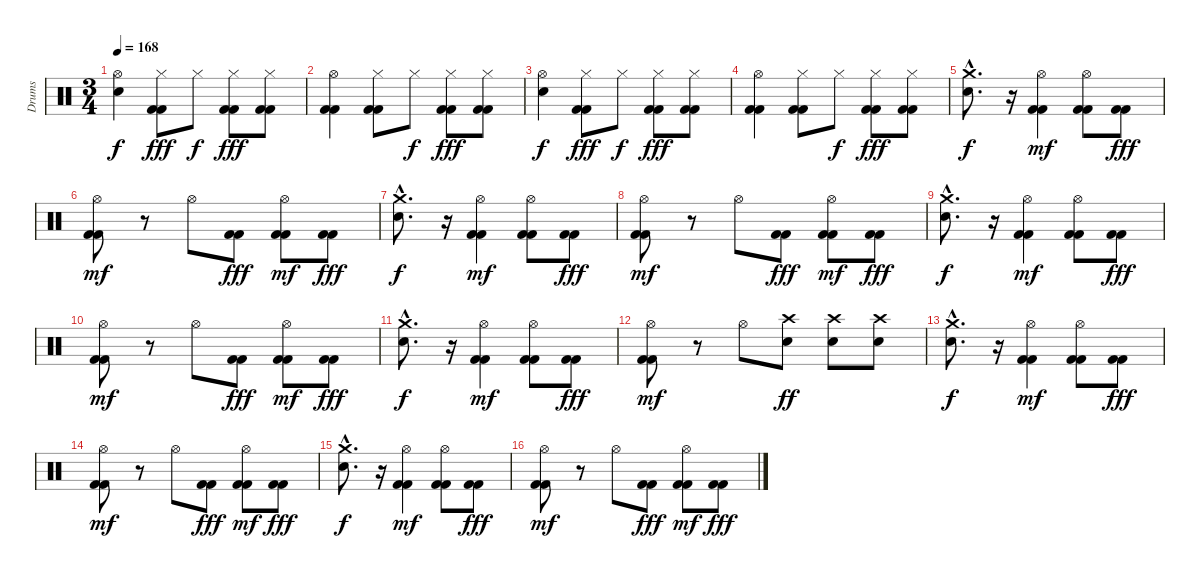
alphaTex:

\track ("Drums" "Drums") {instrument percussion}
\staff {score}
\articulation defaults
\ts (3 4)
\tempo 168
\clef neutral
\ks c
("Hi-Hat (open)" "Electric Snare (hit)").4{dy f} ("Hi-Hat (closed)" "Kick (hit) 2" "Kick (hit) 2").8{dy fff} "Hi-Hat (closed)".8{dy f} ("Hi-Hat (closed)" "Kick (hit) 2" "Kick (hit) 2").8{dy fff} ("Hi-Hat (closed)" "Kick (hit) 2" "Kick (hit) 2").8 |
("Hi-Hat (open)" "Kick (hit) 2" "Kick (hit) 2").4 ("Hi-Hat (closed)" "Kick (hit) 2" "Kick (hit) 2").8 "Hi-Hat (closed)".8{dy f} ("Hi-Hat (closed)" "Kick (hit) 2" "Kick (hit) 2").8{dy fff} ("Hi-Hat (closed)" "Kick (hit) 2" "Kick (hit) 2").8 |
("Hi-Hat (open)" "Electric Snare (hit)").4{dy f} ("Hi-Hat (closed)" "Kick (hit) 2" "Kick (hit) 2").8{dy fff} "Hi-Hat (closed)".8{dy f} ("Hi-Hat (closed)" "Kick (hit) 2" "Kick (hit) 2").8{dy fff} ("Hi-Hat (closed)" "Kick (hit) 2" "Kick (hit) 2").8 |
("Hi-Hat (open)" "Kick (hit) 2" "Kick (hit) 2").4 ("Hi-Hat (closed)" "Kick (hit) 2" "Kick (hit) 2").8 "Hi-Hat (closed)".8{dy f} ("Hi-Hat (closed)" "Kick (hit) 2" "Kick (hit) 2").8{dy fff} ("Hi-Hat (closed)" "Kick (hit) 2" "Kick (hit) 2").8 |
("Crash medium (hit)"{hac} "Electric Snare (hit)"{hac}).8{d dy f} r.16 ("Kick (hit) 2" "Kick (hit) 2" "Hi-Hat (open)").4{dy mf} ("Kick (hit) 2" "Kick (hit) 2" "Hi-Hat (open)").8 ("Kick (hit) 2" "Kick (hit) 2").8{dy fff} |
("Kick (hit) 2" "Kick (hit) 2" "Hi-Hat (open)").8{dy mf} r.8 "Hi-Hat (open)".8 ("Kick (hit) 2" "Kick (hit) 2").8{dy fff} ("Kick (hit) 2" "Kick (hit) 2" "Hi-Hat (open)").8{dy mf} ("Kick (hit) 2" "Kick (hit) 2").8{dy fff} |
("Crash medium (hit)"{hac} "Electric Snare (hit)"{hac}).8{d dy f} r.16 ("Kick (hit) 2" "Kick (hit) 2" "Hi-Hat (open)").4{dy mf} ("Kick (hit) 2" "Kick (hit) 2" "Hi-Hat (open)").8 ("Kick (hit) 2" "Kick (hit) 2").8{dy fff} |
("Kick (hit) 2" "Kick (hit) 2" "Hi-Hat (open)").8{dy mf} r.8 "Hi-Hat (open)".8 ("Kick (hit) 2" "Kick (hit) 2").8{dy fff} ("Kick (hit) 2" "Kick (hit) 2" "Hi-Hat (open)").8{dy mf} ("Kick (hit) 2" "Kick (hit) 2").8{dy fff} |
("Crash medium (hit)"{hac} "Electric Snare (hit)"{hac}).8{d dy f} r.16 ("Kick (hit) 2" "Kick (hit) 2" "Hi-Hat (open)").4{dy mf} ("Kick (hit) 2" "Kick (hit) 2" "Hi-Hat (open)").8 ("Kick (hit) 2" "Kick (hit) 2").8{dy fff} |
("Kick (hit) 2" "Kick (hit) 2" "Hi-Hat (open)").8{dy mf} r.8 "Hi-Hat (open)".8 ("Kick (hit) 2" "Kick (hit) 2").8{dy fff} ("Kick (hit) 2" "Kick (hit) 2" "Hi-Hat (open)").8{dy mf} ("Kick (hit) 2" "Kick (hit) 2").8{dy fff} |
("Crash medium (hit)"{hac} "Electric Snare (hit)"{hac}).8{d dy f} r.16 ("Kick (hit) 2" "Kick (hit) 2" "Hi-Hat (open)").4{dy mf} ("Kick (hit) 2" "Kick (hit) 2" "Hi-Hat (open)").8 ("Kick (hit) 2" "Kick (hit) 2").8{dy fff} |
("Kick (hit) 2" "Kick (hit) 2" "Hi-Hat (open)").8{dy mf} r.8 "Hi-Hat (open)".8 ("Crash high (hit)" "Electric Snare (hit)").8{dy ff} ("Crash high (hit)" "Electric Snare (hit)").8 ("Crash high (hit)" "Electric Snare (hit)").8 |
("Crash medium (hit)"{hac} "Electric Snare (hit)"{hac}).8{d dy f} r.16 ("Kick (hit) 2" "Kick (hit) 2" "Hi-Hat (open)").4{dy mf} ("Kick (hit) 2" "Kick (hit) 2" "Hi-Hat (open)").8 ("Kick (hit) 2" "Kick (hit) 2").8{dy fff} |
("Kick (hit) 2" "Kick (hit) 2" "Hi-Hat (open)").8{dy mf} r.8 "Hi-Hat (open)".8 ("Kick (hit) 2" "Kick (hit) 2").8{dy fff} ("Kick (hit) 2" "Kick (hit) 2" "Hi-Hat (open)").8{dy mf} ("Kick (hit) 2" "Kick (hit) 2").8{dy fff} |
("Crash medium (hit)"{hac} "Electric Snare (hit)"{hac}).8{d dy f} r.16 ("Kick (hit) 2" "Kick (hit) 2" "Hi-Hat (open)").4{dy mf} ("Kick (hit) 2" "Kick (hit) 2" "Hi-Hat (open)").8 ("Kick (hit) 2" "Kick (hit) 2").8{dy fff} |
("Kick (hit) 2" "Kick (hit) 2" "Hi-Hat (open)").8{dy mf} r.8 "Hi-Hat (open)".8 ("Kick (hit) 2" "Kick (hit) 2").8{dy fff} ("Kick (hit) 2" "Kick (hit) 2" "Hi-Hat (open)").8{dy mf} ("Kick (hit) 2" "Kick (hit) 2").8{dy fff}
